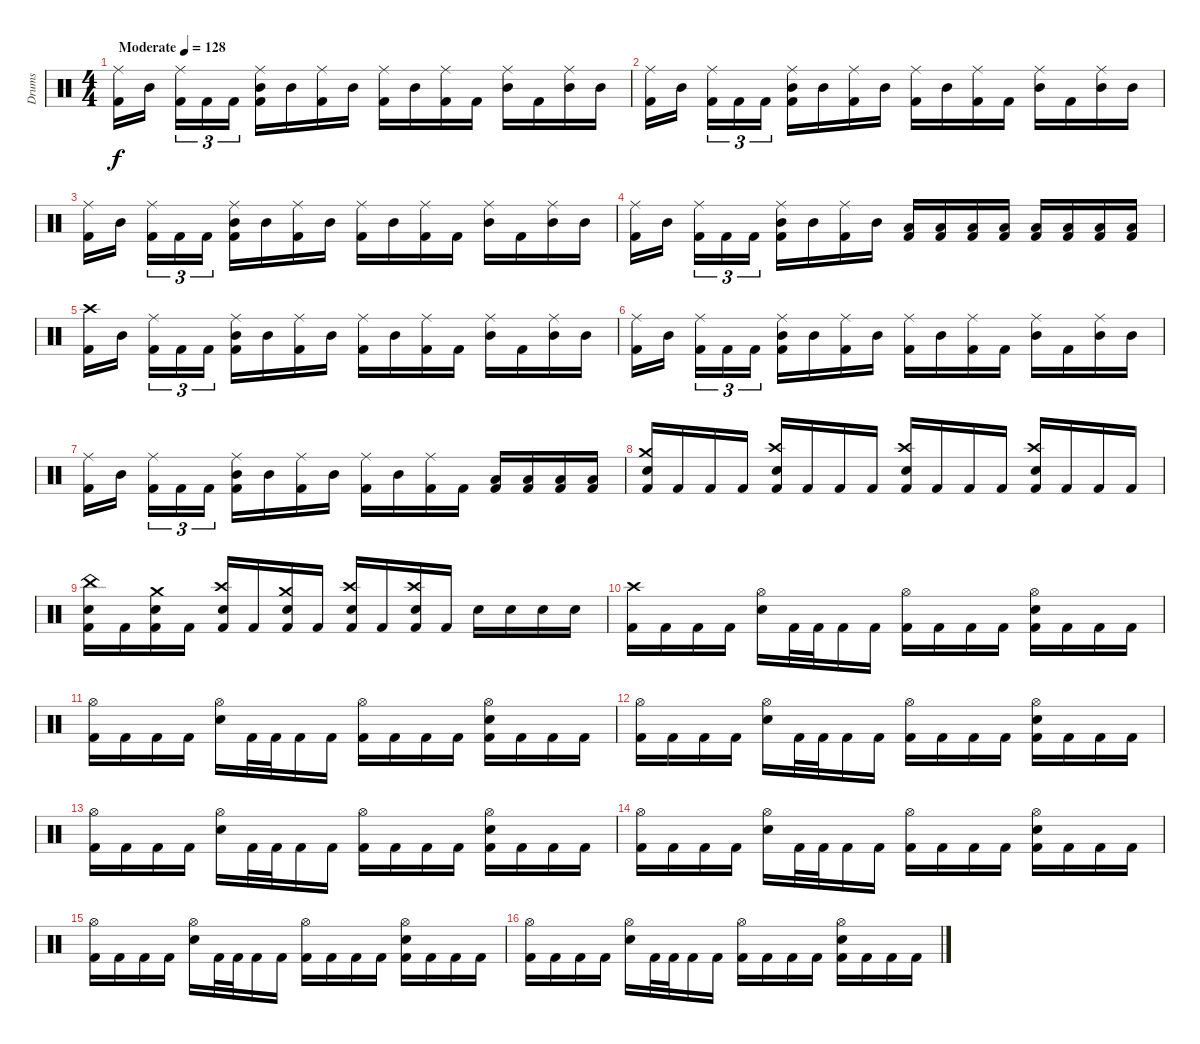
\track ("Drums" "Drums") {instrument percussion}
\staff {score}
\articulation defaults
\ts (4 4)
\tempo (128 "Moderate")
\clef neutral
\ks c
("Ride (middle)" "Kick (hit) 2").16{dy f} "Mid Tom (hit)".16{beam splitsecondary} ("Ride (middle)" "Kick (hit) 2").16{tu (3 2)} "Kick (hit) 2".16{tu (3 2)} "Kick (hit) 2".16{tu (3 2)} ("Ride (middle)" "Mid Tom (hit)" "Kick (hit) 2").16 "Mid Tom (hit)".16 ("Ride (middle)" "Kick (hit) 2").16 "Mid Tom (hit)".16 ("Ride (middle)" "Kick (hit) 2").16 "Mid Tom (hit)".16 ("Ride (middle)" "Kick (hit) 2").16 "Kick (hit) 2".16 ("Ride (middle)" "Mid Tom (hit)").16 "Kick (hit) 2".16 ("Ride (middle)" "Mid Tom (hit)").16 "Mid Tom (hit)".16 |
("Ride (middle)" "Kick (hit) 2").16 "Mid Tom (hit)".16{beam splitsecondary} ("Ride (middle)" "Kick (hit) 2").16{tu (3 2)} "Kick (hit) 2".16{tu (3 2)} "Kick (hit) 2".16{tu (3 2)} ("Ride (middle)" "Mid Tom (hit)" "Kick (hit) 2").16 "Mid Tom (hit)".16 ("Ride (middle)" "Kick (hit) 2").16 "Mid Tom (hit)".16 ("Ride (middle)" "Kick (hit) 2").16 "Mid Tom (hit)".16 ("Ride (middle)" "Kick (hit) 2").16 "Kick (hit) 2".16 ("Ride (middle)" "Mid Tom (hit)").16 "Kick (hit) 2".16 ("Ride (middle)" "Mid Tom (hit)").16 "Mid Tom (hit)".16 |
("Ride (middle)" "Kick (hit) 2").16 "Mid Tom (hit)".16{beam splitsecondary} ("Ride (middle)" "Kick (hit) 2").16{tu (3 2)} "Kick (hit) 2".16{tu (3 2)} "Kick (hit) 2".16{tu (3 2)} ("Ride (middle)" "Mid Tom (hit)" "Kick (hit) 2").16 "Mid Tom (hit)".16 ("Ride (middle)" "Kick (hit) 2").16 "Mid Tom (hit)".16 ("Ride (middle)" "Kick (hit) 2").16 "Mid Tom (hit)".16 ("Ride (middle)" "Kick (hit) 2").16 "Kick (hit) 2".16 ("Ride (middle)" "Mid Tom (hit)").16 "Kick (hit) 2".16 ("Ride (middle)" "Mid Tom (hit)").16 "Mid Tom (hit)".16 |
("Ride (middle)" "Kick (hit) 2").16 "Mid Tom (hit)".16{beam splitsecondary} ("Ride (middle)" "Kick (hit) 2").16{tu (3 2)} "Kick (hit) 2".16{tu (3 2)} "Kick (hit) 2".16{tu (3 2)} ("Ride (middle)" "Mid Tom (hit)" "Kick (hit) 2").16 "Mid Tom (hit)".16 ("Ride (middle)" "Kick (hit) 2").16 "Mid Tom (hit)".16 ("Low Tom (hit)" "Kick (hit) 2").16 ("Low Tom (hit)" "Kick (hit) 2").16 ("Low Tom (hit)" "Kick (hit) 2").16 ("Low Tom (hit)" "Kick (hit) 2").16 ("Low Tom (hit)" "Kick (hit) 2").16 ("Low Tom (hit)" "Kick (hit) 2").16 ("Low Tom (hit)" "Kick (hit) 2").16 ("Low Tom (hit)" "Kick (hit) 2").16 |
("Crash high (hit)" "Kick (hit) 2").16 "Mid Tom (hit)".16{beam splitsecondary} ("Ride (middle)" "Kick (hit) 2").16{tu (3 2)} "Kick (hit) 2".16{tu (3 2)} "Kick (hit) 2".16{tu (3 2)} ("Ride (middle)" "Mid Tom (hit)" "Kick (hit) 2").16 "Mid Tom (hit)".16 ("Ride (middle)" "Kick (hit) 2").16 "Mid Tom (hit)".16 ("Ride (middle)" "Kick (hit) 2").16 "Mid Tom (hit)".16 ("Ride (middle)" "Kick (hit) 2").16 "Kick (hit) 2".16 ("Ride (middle)" "Mid Tom (hit)").16 "Kick (hit) 2".16 ("Ride (middle)" "Mid Tom (hit)").16 "Mid Tom (hit)".16 |
("Ride (middle)" "Kick (hit) 2").16 "Mid Tom (hit)".16{beam splitsecondary} ("Ride (middle)" "Kick (hit) 2").16{tu (3 2)} "Kick (hit) 2".16{tu (3 2)} "Kick (hit) 2".16{tu (3 2)} ("Ride (middle)" "Mid Tom (hit)" "Kick (hit) 2").16 "Mid Tom (hit)".16 ("Ride (middle)" "Kick (hit) 2").16 "Mid Tom (hit)".16 ("Ride (middle)" "Kick (hit) 2").16 "Mid Tom (hit)".16 ("Ride (middle)" "Kick (hit) 2").16 "Kick (hit) 2".16 ("Ride (middle)" "Mid Tom (hit)").16 "Kick (hit) 2".16 ("Ride (middle)" "Mid Tom (hit)").16 "Mid Tom (hit)".16 |
("Ride (middle)" "Kick (hit) 2").16 "Mid Tom (hit)".16{beam splitsecondary} ("Ride (middle)" "Kick (hit) 2").16{tu (3 2)} "Kick (hit) 2".16{tu (3 2)} "Kick (hit) 2".16{tu (3 2)} ("Ride (middle)" "Mid Tom (hit)" "Kick (hit) 2").16 "Mid Tom (hit)".16 ("Ride (middle)" "Kick (hit) 2").16 "Mid Tom (hit)".16 ("Ride (middle)" "Kick (hit) 2").16 "Mid Tom (hit)".16 ("Ride (middle)" "Kick (hit) 2").16 "Kick (hit) 2".16 ("Low Tom (hit)" "Kick (hit) 2").16 ("Low Tom (hit)" "Kick (hit) 2").16 ("Low Tom (hit)" "Kick (hit) 2").16 ("Low Tom (hit)" "Kick (hit) 2").16 |
("Crash medium (hit)" "Electric Snare (hit)" "Kick (hit) 2").16 "Kick (hit) 2".16 "Kick (hit) 2".16 "Kick (hit) 2".16 ("Crash high (hit)" "Electric Snare (hit)" "Kick (hit) 2").16 "Kick (hit) 2".16 "Kick (hit) 2".16 "Kick (hit) 2".16 ("Crash high (hit)" "Electric Snare (hit)" "Kick (hit) 2").16 "Kick (hit) 2".16 "Kick (hit) 2".16 "Kick (hit) 2".16 ("Crash high (hit)" "Electric Snare (hit)" "Kick (hit) 2").16 "Kick (hit) 2".16 "Kick (hit) 2".16 "Kick (hit) 2".16 |
("China (hit)" "Electric Snare (hit)" "Kick (hit) 2").16 "Kick (hit) 2".16 ("Crash medium (hit)" "Electric Snare (hit)" "Kick (hit) 2").16 "Kick (hit) 2".16 ("Crash high (hit)" "Electric Snare (hit)" "Kick (hit) 2").16 "Kick (hit) 2".16 ("Crash medium (hit)" "Electric Snare (hit)" "Kick (hit) 2").16 "Kick (hit) 2".16 ("Crash high (hit)" "Electric Snare (hit)" "Kick (hit) 2").16 "Kick (hit) 2".16 ("Crash high (hit)" "Electric Snare (hit)" "Kick (hit) 2").16 "Kick (hit) 2".16 "Electric Snare (hit)".16 "Electric Snare (hit)".16 "Electric Snare (hit)".16 "Electric Snare (hit)".16 |
("Crash high (hit)" "Kick (hit) 2").16 "Kick (hit) 2".16 "Kick (hit) 2".16 "Kick (hit) 2".16 ("Hi-Hat (open)" "Electric Snare (hit)").16 "Kick (hit) 2".32 "Kick (hit) 2".32 "Kick (hit) 2".16 "Kick (hit) 2".16 ("Hi-Hat (open)" "Kick (hit) 2").16 "Kick (hit) 2".16 "Kick (hit) 2".16 "Kick (hit) 2".16 ("Hi-Hat (open)" "Electric Snare (hit)" "Kick (hit) 2").16 "Kick (hit) 2".16 "Kick (hit) 2".16 "Kick (hit) 2".16 |
("Hi-Hat (open)" "Kick (hit) 2").16 "Kick (hit) 2".16 "Kick (hit) 2".16 "Kick (hit) 2".16 ("Hi-Hat (open)" "Electric Snare (hit)").16 "Kick (hit) 2".32 "Kick (hit) 2".32 "Kick (hit) 2".16 "Kick (hit) 2".16 ("Hi-Hat (open)" "Kick (hit) 2").16 "Kick (hit) 2".16 "Kick (hit) 2".16 "Kick (hit) 2".16 ("Hi-Hat (open)" "Electric Snare (hit)" "Kick (hit) 2").16 "Kick (hit) 2".16 "Kick (hit) 2".16 "Kick (hit) 2".16 |
("Hi-Hat (open)" "Kick (hit) 2").16 "Kick (hit) 2".16 "Kick (hit) 2".16 "Kick (hit) 2".16 ("Hi-Hat (open)" "Electric Snare (hit)").16 "Kick (hit) 2".32 "Kick (hit) 2".32 "Kick (hit) 2".16 "Kick (hit) 2".16 ("Hi-Hat (open)" "Kick (hit) 2").16 "Kick (hit) 2".16 "Kick (hit) 2".16 "Kick (hit) 2".16 ("Hi-Hat (open)" "Electric Snare (hit)" "Kick (hit) 2").16 "Kick (hit) 2".16 "Kick (hit) 2".16 "Kick (hit) 2".16 |
("Hi-Hat (open)" "Kick (hit) 2").16 "Kick (hit) 2".16 "Kick (hit) 2".16 "Kick (hit) 2".16 ("Hi-Hat (open)" "Electric Snare (hit)").16 "Kick (hit) 2".32 "Kick (hit) 2".32 "Kick (hit) 2".16 "Kick (hit) 2".16 ("Hi-Hat (open)" "Kick (hit) 2").16 "Kick (hit) 2".16 "Kick (hit) 2".16 "Kick (hit) 2".16 ("Hi-Hat (open)" "Electric Snare (hit)" "Kick (hit) 2").16 "Kick (hit) 2".16 "Kick (hit) 2".16 "Kick (hit) 2".16 |
("Hi-Hat (open)" "Kick (hit) 2").16 "Kick (hit) 2".16 "Kick (hit) 2".16 "Kick (hit) 2".16 ("Hi-Hat (open)" "Electric Snare (hit)").16 "Kick (hit) 2".32 "Kick (hit) 2".32 "Kick (hit) 2".16 "Kick (hit) 2".16 ("Hi-Hat (open)" "Kick (hit) 2").16 "Kick (hit) 2".16 "Kick (hit) 2".16 "Kick (hit) 2".16 ("Hi-Hat (open)" "Electric Snare (hit)" "Kick (hit) 2").16 "Kick (hit) 2".16 "Kick (hit) 2".16 "Kick (hit) 2".16 |
("Hi-Hat (open)" "Kick (hit) 2").16 "Kick (hit) 2".16 "Kick (hit) 2".16 "Kick (hit) 2".16 ("Hi-Hat (open)" "Electric Snare (hit)").16 "Kick (hit) 2".32 "Kick (hit) 2".32 "Kick (hit) 2".16 "Kick (hit) 2".16 ("Hi-Hat (open)" "Kick (hit) 2").16 "Kick (hit) 2".16 "Kick (hit) 2".16 "Kick (hit) 2".16 ("Hi-Hat (open)" "Electric Snare (hit)" "Kick (hit) 2").16 "Kick (hit) 2".16 "Kick (hit) 2".16 "Kick (hit) 2".16 |
("Hi-Hat (open)" "Kick (hit) 2").16 "Kick (hit) 2".16 "Kick (hit) 2".16 "Kick (hit) 2".16 ("Hi-Hat (open)" "Electric Snare (hit)").16 "Kick (hit) 2".32 "Kick (hit) 2".32 "Kick (hit) 2".16 "Kick (hit) 2".16 ("Hi-Hat (open)" "Kick (hit) 2").16 "Kick (hit) 2".16 "Kick (hit) 2".16 "Kick (hit) 2".16 ("Hi-Hat (open)" "Electric Snare (hit)" "Kick (hit) 2").16 "Kick (hit) 2".16 "Kick (hit) 2".16 "Kick (hit) 2".16
